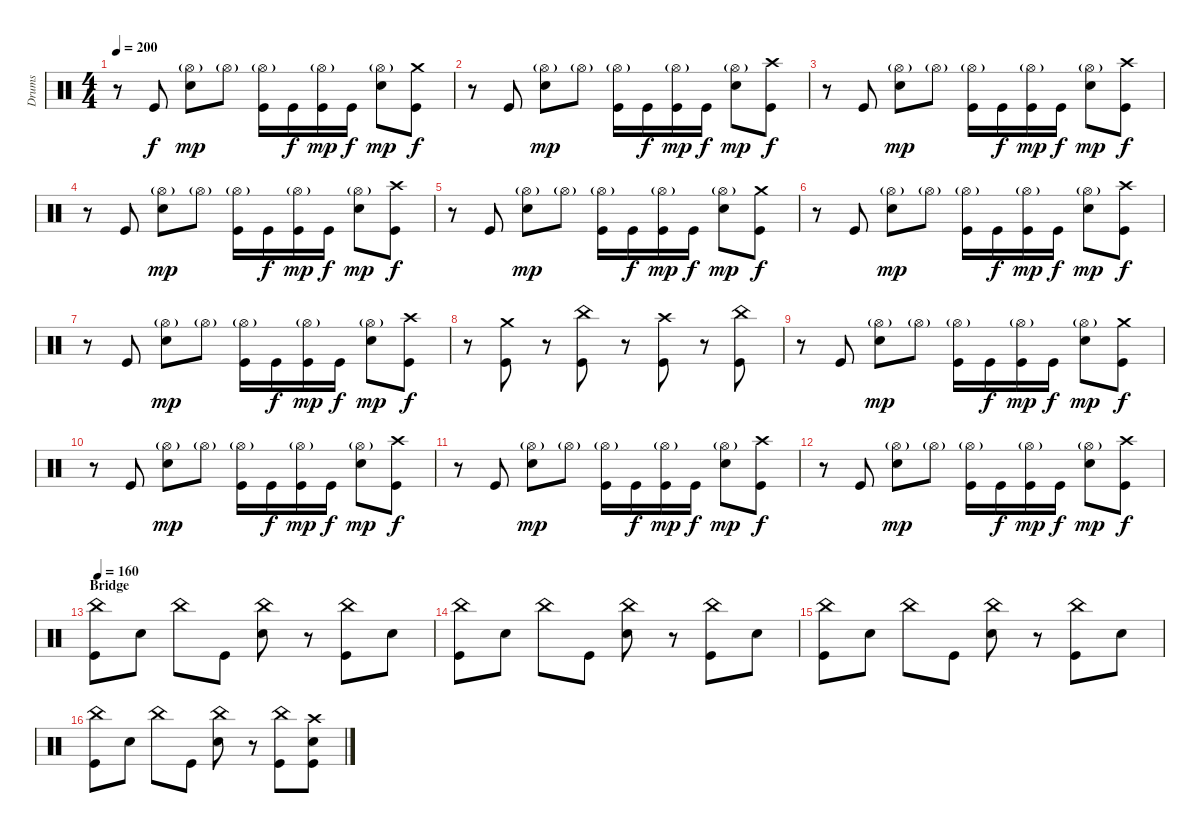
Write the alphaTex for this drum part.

\track ("Drums" "Drums") {instrument percussion}
\staff {score}
\articulation defaults
\ts (4 4)
\tempo 200
\clef neutral
\ks c
r.8{dy f} "Kick (hit)".8 ("Hi-Hat (open)"{g} "Snare (hit) 2").8{dy mp} "Hi-Hat (open)"{g}.8 ("Hi-Hat (open)"{g} "Kick (hit)").16 "Kick (hit)".16{dy f} ("Hi-Hat (open)"{g} "Kick (hit)").16{dy mp} "Kick (hit)".16{dy f} ("Hi-Hat (open)"{g} "Snare (hit) 2").8{dy mp} ("Crash medium (hit)" "Kick (hit)").8{dy f} |
r.8 "Kick (hit)".8 ("Hi-Hat (open)"{g} "Snare (hit) 2").8{dy mp} "Hi-Hat (open)"{g}.8 ("Hi-Hat (open)"{g} "Kick (hit)").16 "Kick (hit)".16{dy f} ("Hi-Hat (open)"{g} "Kick (hit)").16{dy mp} "Kick (hit)".16{dy f} ("Hi-Hat (open)"{g} "Snare (hit) 2").8{dy mp} ("Crash high (hit)" "Kick (hit)").8{dy f} |
r.8 "Kick (hit)".8 ("Hi-Hat (open)"{g} "Snare (hit) 2").8{dy mp} "Hi-Hat (open)"{g}.8 ("Hi-Hat (open)"{g} "Kick (hit)").16 "Kick (hit)".16{dy f} ("Hi-Hat (open)"{g} "Kick (hit)").16{dy mp} "Kick (hit)".16{dy f} ("Hi-Hat (open)"{g} "Snare (hit) 2").8{dy mp} ("Crash high (hit)" "Kick (hit)").8{dy f} |
r.8 "Kick (hit)".8 ("Hi-Hat (open)"{g} "Snare (hit) 2").8{dy mp} "Hi-Hat (open)"{g}.8 ("Hi-Hat (open)"{g} "Kick (hit)").16 "Kick (hit)".16{dy f} ("Hi-Hat (open)"{g} "Kick (hit)").16{dy mp} "Kick (hit)".16{dy f} ("Hi-Hat (open)"{g} "Snare (hit) 2").8{dy mp} ("Crash high (hit)" "Kick (hit)").8{dy f} |
r.8 "Kick (hit)".8 ("Hi-Hat (open)"{g} "Snare (hit) 2").8{dy mp} "Hi-Hat (open)"{g}.8 ("Hi-Hat (open)"{g} "Kick (hit)").16 "Kick (hit)".16{dy f} ("Hi-Hat (open)"{g} "Kick (hit)").16{dy mp} "Kick (hit)".16{dy f} ("Hi-Hat (open)"{g} "Snare (hit) 2").8{dy mp} ("Crash medium (hit)" "Kick (hit)").8{dy f} |
r.8 "Kick (hit)".8 ("Hi-Hat (open)"{g} "Snare (hit) 2").8{dy mp} "Hi-Hat (open)"{g}.8 ("Hi-Hat (open)"{g} "Kick (hit)").16 "Kick (hit)".16{dy f} ("Hi-Hat (open)"{g} "Kick (hit)").16{dy mp} "Kick (hit)".16{dy f} ("Hi-Hat (open)"{g} "Snare (hit) 2").8{dy mp} ("Crash high (hit)" "Kick (hit)").8{dy f} |
r.8 "Kick (hit)".8 ("Hi-Hat (open)"{g} "Snare (hit) 2").8{dy mp} "Hi-Hat (open)"{g}.8 ("Hi-Hat (open)"{g} "Kick (hit)").16 "Kick (hit)".16{dy f} ("Hi-Hat (open)"{g} "Kick (hit)").16{dy mp} "Kick (hit)".16{dy f} ("Hi-Hat (open)"{g} "Snare (hit) 2").8{dy mp} ("Crash high (hit)" "Kick (hit)").8{dy f} |
r.8 ("Crash medium (hit)" "Kick (hit)").8 r.8 ("China (hit)" "Kick (hit)").8 r.8 ("Crash high (hit)" "Kick (hit)").8 r.8 ("China (hit)" "Kick (hit)").8 |
r.8 "Kick (hit)".8 ("Hi-Hat (open)"{g} "Snare (hit) 2").8{dy mp} "Hi-Hat (open)"{g}.8 ("Hi-Hat (open)"{g} "Kick (hit)").16 "Kick (hit)".16{dy f} ("Hi-Hat (open)"{g} "Kick (hit)").16{dy mp} "Kick (hit)".16{dy f} ("Hi-Hat (open)"{g} "Snare (hit) 2").8{dy mp} ("Crash medium (hit)" "Kick (hit)").8{dy f} |
r.8 "Kick (hit)".8 ("Hi-Hat (open)"{g} "Snare (hit) 2").8{dy mp} "Hi-Hat (open)"{g}.8 ("Hi-Hat (open)"{g} "Kick (hit)").16 "Kick (hit)".16{dy f} ("Hi-Hat (open)"{g} "Kick (hit)").16{dy mp} "Kick (hit)".16{dy f} ("Hi-Hat (open)"{g} "Snare (hit) 2").8{dy mp} ("Crash high (hit)" "Kick (hit)").8{dy f} |
r.8 "Kick (hit)".8 ("Hi-Hat (open)"{g} "Snare (hit) 2").8{dy mp} "Hi-Hat (open)"{g}.8 ("Hi-Hat (open)"{g} "Kick (hit)").16 "Kick (hit)".16{dy f} ("Hi-Hat (open)"{g} "Kick (hit)").16{dy mp} "Kick (hit)".16{dy f} ("Hi-Hat (open)"{g} "Snare (hit) 2").8{dy mp} ("Crash high (hit)" "Kick (hit)").8{dy f} |
r.8 "Kick (hit)".8 ("Hi-Hat (open)"{g} "Snare (hit) 2").8{dy mp} "Hi-Hat (open)"{g}.8 ("Hi-Hat (open)"{g} "Kick (hit)").16 "Kick (hit)".16{dy f} ("Hi-Hat (open)"{g} "Kick (hit)").16{dy mp} "Kick (hit)".16{dy f} ("Hi-Hat (open)"{g} "Snare (hit) 2").8{dy mp} ("Crash high (hit)" "Kick (hit)").8{dy f} |
\section ("" "Bridge")
\tempo 160
("China (hit)" "Kick (hit)").8 "Snare (hit) 2".8 "China (hit)".8 "Kick (hit)".8 ("China (hit)" "Snare (hit) 2").8 r.8 ("China (hit)" "Kick (hit)").8 "Snare (hit) 2".8 |
("China (hit)" "Kick (hit)").8 "Snare (hit) 2".8 "China (hit)".8 "Kick (hit)".8 ("China (hit)" "Snare (hit) 2").8 r.8 ("China (hit)" "Kick (hit)").8 "Snare (hit) 2".8 |
("China (hit)" "Kick (hit)").8 "Snare (hit) 2".8 "China (hit)".8 "Kick (hit)".8 ("China (hit)" "Snare (hit) 2").8 r.8 ("China (hit)" "Kick (hit)").8 "Snare (hit) 2".8 |
("China (hit)" "Kick (hit)").8 "Snare (hit) 2".8 "China (hit)".8 "Kick (hit)".8 ("China (hit)" "Snare (hit) 2").8 r.8 ("China (hit)" "Kick (hit)").8 ("Crash high (hit)" "Snare (hit) 2" "Kick (hit)").8
